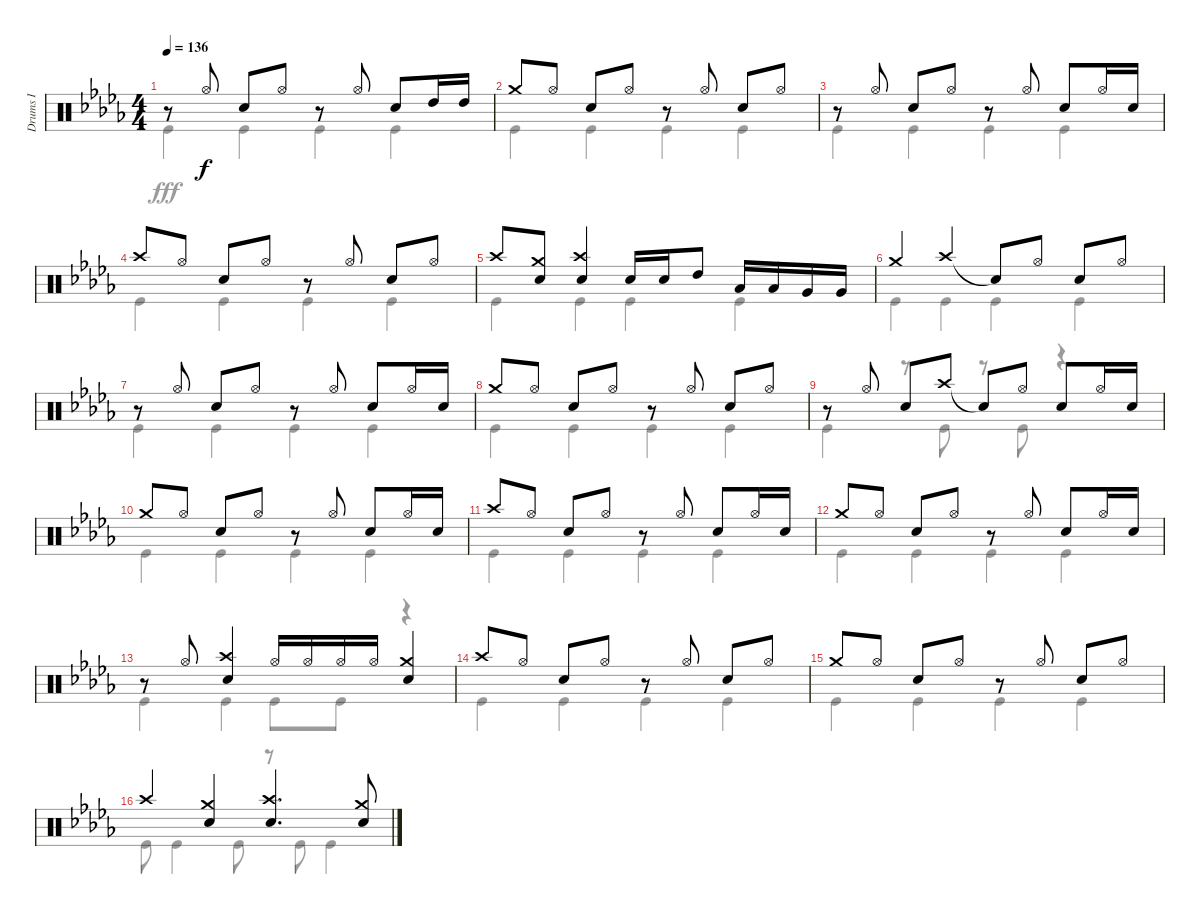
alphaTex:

\track ("Drums I" "Drums I") {instrument percussion}
\staff {score}
\articulation defaults
\voice
\ts (4 4)
\tempo 136
\clef neutral
\ks db
r.8{dy f} "Hi-Hat (open)".8 "Snare (hit) 2".8 "Hi-Hat (open)".8 r.8 "Hi-Hat (open)".8 "Snare (hit) 2".8 "High Tom (hit)".16 "High Tom (hit)".16 |
"Crash medium (hit)".8 "Hi-Hat (open)".8 "Snare (hit) 2".8 "Hi-Hat (open)".8 r.8 "Hi-Hat (open)".8 "Snare (hit) 2".8 "Hi-Hat (open)".8 |
r.8 "Hi-Hat (open)".8 "Snare (hit) 2".8 "Hi-Hat (open)".8 r.8 "Hi-Hat (open)".8 "Snare (hit) 2".8 "Hi-Hat (open)".16 "Snare (hit) 2".16 |
"Crash high (hit)".8 "Hi-Hat (open)".8 "Snare (hit) 2".8 "Hi-Hat (open)".8 r.8 "Hi-Hat (open)".8 "Snare (hit) 2".8 "Hi-Hat (open)".8 |
"Crash high (hit)".8 ("Crash medium (hit)" "Snare (hit) 2").8 ("Crash high (hit)" "Snare (hit) 2").4 "Snare (hit) 2".16 "Snare (hit) 2".16 "High Tom (hit)".8 "Low Tom (hit)".16 "Low Tom (hit)".16 "Very Low Tom (hit)".16 "Very Low Tom (hit)".16 |
"Crash medium (hit)".4 "Crash high (hit)".4 "Snare (hit)"{t}.8 "Hi-Hat (open)".8 "Snare (hit) 2".8 "Hi-Hat (open)".8 |
r.8 "Hi-Hat (open)".8 "Snare (hit) 2".8 "Hi-Hat (open)".8 r.8 "Hi-Hat (open)".8 "Snare (hit) 2".8 "Hi-Hat (open)".16 "Snare (hit) 2".16 |
"Crash medium (hit)".8 "Hi-Hat (open)".8 "Snare (hit) 2".8 "Hi-Hat (open)".8 r.8 "Hi-Hat (open)".8 "Snare (hit) 2".8 "Hi-Hat (open)".8 |
r.8 "Hi-Hat (open)".8 "Snare (hit) 2".8 "Crash high (hit)".8 "Snare (hit)"{t}.8 "Hi-Hat (open)".8 "Snare (hit) 2".8 "Hi-Hat (open)".16 "Snare (hit) 2".16 |
"Crash medium (hit)".8 "Hi-Hat (open)".8 "Snare (hit) 2".8 "Hi-Hat (open)".8 r.8 "Hi-Hat (open)".8 "Snare (hit) 2".8 "Hi-Hat (open)".16 "Snare (hit) 2".16 |
"Crash high (hit)".8 "Hi-Hat (open)".8 "Snare (hit) 2".8 "Hi-Hat (open)".8 r.8 "Hi-Hat (open)".8 "Snare (hit) 2".8 "Hi-Hat (open)".16 "Snare (hit) 2".16 |
"Crash medium (hit)".8 "Hi-Hat (open)".8 "Snare (hit) 2".8 "Hi-Hat (open)".8 r.8 "Hi-Hat (open)".8 "Snare (hit) 2".8 "Hi-Hat (open)".16 "Snare (hit) 2".16 |
r.8 "Hi-Hat (open)".8 ("Crash high (hit)" "Snare (hit) 2").4 "Hi-Hat (open)".16 "Hi-Hat (open)".16 "Hi-Hat (open)".16 "Hi-Hat (open)".16 ("Crash medium (hit)" "Snare (hit) 2").4 |
"Crash high (hit)".8 "Hi-Hat (open)".8 "Snare (hit) 2".8 "Hi-Hat (open)".8 r.8 "Hi-Hat (open)".8 "Snare (hit) 2".8 "Hi-Hat (open)".8 |
"Crash medium (hit)".8 "Hi-Hat (open)".8 "Snare (hit) 2".8 "Hi-Hat (open)".8 r.8 "Hi-Hat (open)".8 "Snare (hit) 2".8 "Hi-Hat (open)".8 |
"Crash high (hit)".4 ("Crash medium (hit)" "Snare (hit) 2").4 ("Crash high (hit)" "Snare (hit) 2").4{d} ("Crash medium (hit)" "Snare (hit) 2").8
\voice
\clef neutral
\ottava regular
\simile none
\ks db "Kick (hit)".4{dy fff} "Kick (hit)".4 "Kick (hit)".4 "Kick (hit)".4
|
"Kick (hit)".4 "Kick (hit)".4 "Kick (hit)".4 "Kick (hit)".4 |
"Kick (hit)".4 "Kick (hit)".4 "Kick (hit)".4 "Kick (hit)".4 |
"Kick (hit)".4 "Kick (hit)".4 "Kick (hit)".4 "Kick (hit)".4 |
"Kick (hit)".4 "Kick (hit)".4 "Kick (hit)".4 "Kick (hit)".4 |
"Kick (hit)".4 "Kick (hit)".4 "Kick (hit)".4 "Kick (hit)".4 |
"Kick (hit)".4 "Kick (hit)".4 "Kick (hit)".4 "Kick (hit)".4 |
"Kick (hit)".4 "Kick (hit)".4 "Kick (hit)".4 "Kick (hit)".4 |
"Kick (hit)".4 r.8 "Kick (hit)".8 r.8 "Kick (hit)".8 r.4 |
"Kick (hit)".4 "Kick (hit)".4 "Kick (hit)".4 "Kick (hit)".4 |
"Kick (hit)".4 "Kick (hit)".4 "Kick (hit)".4 "Kick (hit)".4 |
"Kick (hit)".4 "Kick (hit)".4 "Kick (hit)".4 "Kick (hit)".4 |
"Kick (hit)".4 "Kick (hit)".4 "Kick (hit)".8 "Kick (hit)".8 r.4 |
"Kick (hit)".4 "Kick (hit)".4 "Kick (hit)".4 "Kick (hit)".4 |
"Kick (hit)".4 "Kick (hit)".4 "Kick (hit)".4 "Kick (hit)".4 |
"Kick (hit)".8 "Kick (hit)".4 "Kick (hit)".8 r.8 "Kick (hit)".8 "Kick (hit)".4
